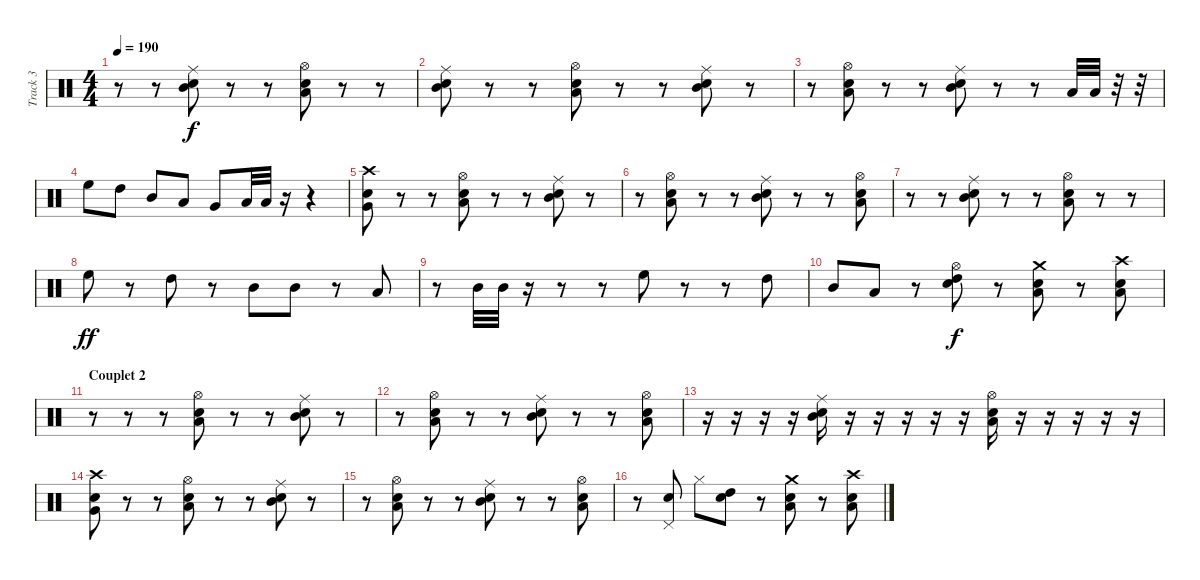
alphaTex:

\track ("Track 3" "Track 3") {instrument percussion}
\staff {score}
\articulation defaults
\ts (4 4)
\tempo 190
\clef neutral
\ks c
r.8{dy f} r.8 ("Mid Tom (hit)" "Snare (hit) 2" "Ride (middle)").8 r.8 r.8 ("Low Tom (hit)" "Snare (hit) 2" "Hi-Hat (open)").8 r.8 r.8 |
("Mid Tom (hit)" "Snare (hit) 2" "Ride (middle)").8 r.8 r.8 ("Low Tom (hit)" "Snare (hit) 2" "Hi-Hat (open)").8 r.8 r.8 ("Mid Tom (hit)" "Snare (hit) 2" "Ride (middle)").8 r.8 |
r.8 ("Low Tom (hit)" "Snare (hit) 2" "Hi-Hat (open)").8 r.8 r.8 ("Mid Tom (hit)" "Snare (hit) 2" "Ride (middle)").8 r.8 r.8 "Low Tom (hit)".32 "Low Tom (hit)".32 r.32 r.32 |
"High Floor Tom (hit)".8 "High Tom (hit)".8 "Mid Tom (hit)".8 "Low Tom (hit)".8 "Very Low Tom (hit)".8 "Low Floor Tom (hit)".32 "Low Floor Tom (hit)".32 r.16 r.4 |
("Very Low Tom (hit)" "Snare (hit) 2" "Crash high (hit)").8 r.8 r.8 ("Low Tom (hit)" "Snare (hit) 2" "Hi-Hat (open)").8 r.8 r.8 ("Mid Tom (hit)" "Snare (hit) 2" "Ride (middle)").8 r.8 |
r.8 ("Low Tom (hit)" "Snare (hit) 2" "Hi-Hat (open)").8 r.8 r.8 ("Mid Tom (hit)" "Snare (hit) 2" "Ride (middle)").8 r.8 r.8 ("Low Tom (hit)" "Snare (hit) 2" "Hi-Hat (open)").8 |
r.8 r.8 ("Mid Tom (hit)" "Snare (hit) 2" "Ride (middle)").8 r.8 r.8 ("Low Tom (hit)" "Snare (hit) 2" "Hi-Hat (open)").8 r.8 r.8 |
"High Floor Tom (hit)".8{dy ff} r.8 "High Tom (hit)".8 r.8 "Mid Tom (hit)".8 "Mid Tom (hit)".8 r.8 "Low Tom (hit)".8 |
r.8 "Mid Tom (hit)".32 "Mid Tom (hit)".32 r.16 r.8 r.8 "High Floor Tom (hit)".8 r.8 r.8 "High Tom (hit)".8 |
"Mid Tom (hit)".8 "Low Tom (hit)".8 r.8 ("Electric Snare (hit)" "High Tom (hit)" "Hi-Hat (open)").8{dy f} r.8 ("Electric Snare (hit)" "Low Tom (hit)" "Crash medium (hit)").8 r.8 ("Low Tom (hit)" "Snare (hit) 2" "Crash high (hit)").8 |
\section ("" "Couplet 2")
r.8 r.8 r.8 ("Low Tom (hit)" "Snare (hit) 2" "Hi-Hat (open)").8 r.8 r.8 ("Mid Tom (hit)" "Snare (hit) 2" "Ride (middle)").8 r.8 |
r.8 ("Low Tom (hit)" "Snare (hit) 2" "Hi-Hat (open)").8 r.8 r.8 ("Mid Tom (hit)" "Snare (hit) 2" "Ride (middle)").8 r.8 r.8 ("Low Tom (hit)" "Snare (hit) 2" "Hi-Hat (open)").8 |
r.16 r.16 r.16 r.16 ("Mid Tom (hit)" "Snare (hit) 2" "Ride (middle)").16 r.16 r.16 r.16 r.16 r.16 ("Low Tom (hit)" "Snare (hit) 2" "Hi-Hat (open)").16 r.16 r.16 r.16 r.16 r.16 |
("Very Low Tom (hit)" "Snare (hit) 2" "Crash high (hit)").8 r.8 r.8 ("Low Tom (hit)" "Snare (hit) 2" "Hi-Hat (open)").8 r.8 r.8 ("Mid Tom (hit)" "Snare (hit) 2" "Ride (middle)").8 r.8 |
r.8 ("Low Tom (hit)" "Snare (hit) 2" "Hi-Hat (open)").8 r.8 r.8 ("Mid Tom (hit)" "Snare (hit) 2" "Ride (middle)").8 r.8 r.8 ("Low Tom (hit)" "Snare (hit) 2" "Hi-Hat (open)").8 |
r.8 ("Pedal Hi-Hat (hit)" "Snare (hit) 2").8 "Hi-Hat (closed)".8 ("Electric Snare (hit)" "High Tom (hit)").8 r.8 ("Electric Snare (hit)" "Low Tom (hit)" "Crash medium (hit)").8 r.8 ("Low Tom (hit)" "Snare (hit) 2" "Crash high (hit)").8
